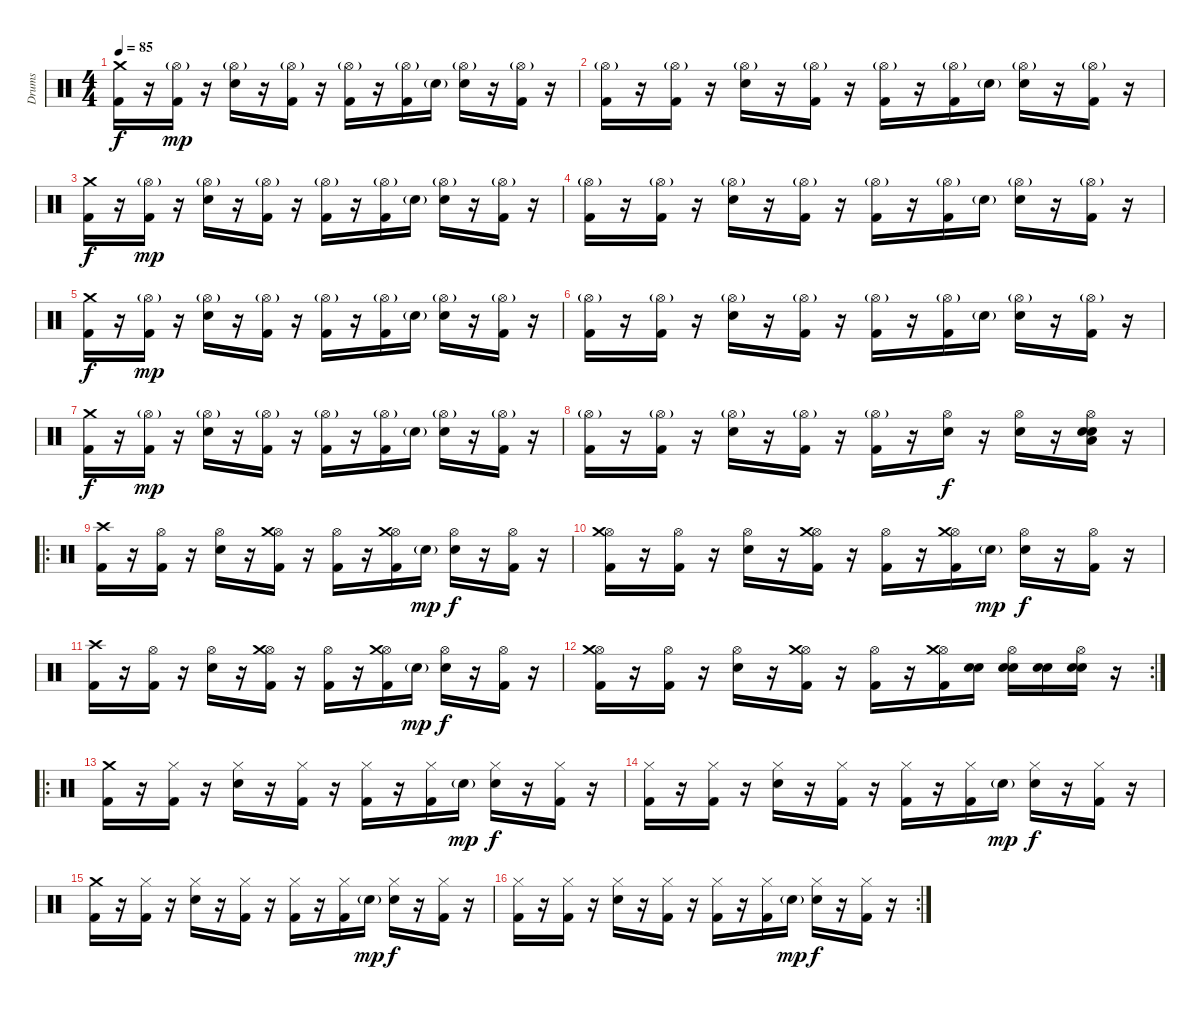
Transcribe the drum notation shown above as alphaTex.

\track ("Drums" "Drums") {instrument percussion}
\staff {score}
\articulation defaults
\ts (4 4)
\tempo 85
\clef neutral
\ks c
("Crash medium (hit)" "Kick (hit) 2").16{dy f} r.16 ("Hi-Hat (open)"{g} "Kick (hit) 2").16{dy mp} r.16 ("Hi-Hat (open)"{g} "Snare (hit) 2").16 r.16 ("Hi-Hat (open)"{g} "Kick (hit) 2").16 r.16 ("Hi-Hat (open)"{g} "Kick (hit) 2").16 r.16 ("Hi-Hat (open)"{g} "Kick (hit) 2").16 "Snare (hit) 2"{g}.16 ("Hi-Hat (open)"{g} "Snare (hit) 2").16 r.16 ("Hi-Hat (open)"{g} "Kick (hit) 2").16 r.16 |
("Hi-Hat (open)"{g} "Kick (hit) 2").16 r.16 ("Hi-Hat (open)"{g} "Kick (hit) 2").16 r.16 ("Hi-Hat (open)"{g} "Snare (hit) 2").16 r.16 ("Hi-Hat (open)"{g} "Kick (hit) 2").16 r.16 ("Hi-Hat (open)"{g} "Kick (hit) 2").16 r.16 ("Hi-Hat (open)"{g} "Kick (hit) 2").16 "Snare (hit) 2"{g}.16 ("Hi-Hat (open)"{g} "Snare (hit) 2").16 r.16 ("Hi-Hat (open)"{g} "Kick (hit) 2").16 r.16 |
("Crash medium (hit)" "Kick (hit) 2").16{dy f} r.16 ("Hi-Hat (open)"{g} "Kick (hit) 2").16{dy mp} r.16 ("Hi-Hat (open)"{g} "Snare (hit) 2").16 r.16 ("Hi-Hat (open)"{g} "Kick (hit) 2").16 r.16 ("Hi-Hat (open)"{g} "Kick (hit) 2").16 r.16 ("Hi-Hat (open)"{g} "Kick (hit) 2").16 "Snare (hit) 2"{g}.16 ("Hi-Hat (open)"{g} "Snare (hit) 2").16 r.16 ("Hi-Hat (open)"{g} "Kick (hit) 2").16 r.16 |
("Hi-Hat (open)"{g} "Kick (hit) 2").16 r.16 ("Hi-Hat (open)"{g} "Kick (hit) 2").16 r.16 ("Hi-Hat (open)"{g} "Snare (hit) 2").16 r.16 ("Hi-Hat (open)"{g} "Kick (hit) 2").16 r.16 ("Hi-Hat (open)"{g} "Kick (hit) 2").16 r.16 ("Hi-Hat (open)"{g} "Kick (hit) 2").16 "Snare (hit) 2"{g}.16 ("Hi-Hat (open)"{g} "Snare (hit) 2").16 r.16 ("Hi-Hat (open)"{g} "Kick (hit) 2").16 r.16 |
("Crash medium (hit)" "Kick (hit) 2").16{dy f} r.16 ("Hi-Hat (open)"{g} "Kick (hit) 2").16{dy mp} r.16 ("Hi-Hat (open)"{g} "Snare (hit) 2").16 r.16 ("Hi-Hat (open)"{g} "Kick (hit) 2").16 r.16 ("Hi-Hat (open)"{g} "Kick (hit) 2").16 r.16 ("Hi-Hat (open)"{g} "Kick (hit) 2").16 "Snare (hit) 2"{g}.16 ("Hi-Hat (open)"{g} "Snare (hit) 2").16 r.16 ("Hi-Hat (open)"{g} "Kick (hit) 2").16 r.16 |
("Hi-Hat (open)"{g} "Kick (hit) 2").16 r.16 ("Hi-Hat (open)"{g} "Kick (hit) 2").16 r.16 ("Hi-Hat (open)"{g} "Snare (hit) 2").16 r.16 ("Hi-Hat (open)"{g} "Kick (hit) 2").16 r.16 ("Hi-Hat (open)"{g} "Kick (hit) 2").16 r.16 ("Hi-Hat (open)"{g} "Kick (hit) 2").16 "Snare (hit) 2"{g}.16 ("Hi-Hat (open)"{g} "Snare (hit) 2").16 r.16 ("Hi-Hat (open)"{g} "Kick (hit) 2").16 r.16 |
("Crash medium (hit)" "Kick (hit) 2").16{dy f} r.16 ("Hi-Hat (open)"{g} "Kick (hit) 2").16{dy mp} r.16 ("Hi-Hat (open)"{g} "Snare (hit) 2").16 r.16 ("Hi-Hat (open)"{g} "Kick (hit) 2").16 r.16 ("Hi-Hat (open)"{g} "Kick (hit) 2").16 r.16 ("Hi-Hat (open)"{g} "Kick (hit) 2").16 "Snare (hit) 2"{g}.16 ("Hi-Hat (open)"{g} "Snare (hit) 2").16 r.16 ("Hi-Hat (open)"{g} "Kick (hit) 2").16 r.16 |
("Hi-Hat (open)"{g} "Kick (hit) 2").16 r.16 ("Hi-Hat (open)"{g} "Kick (hit) 2").16 r.16 ("Hi-Hat (open)"{g} "Snare (hit) 2").16 r.16 ("Hi-Hat (open)"{g} "Kick (hit) 2").16 r.16 ("Hi-Hat (open)"{g} "Kick (hit) 2").16 r.16 ("Hi-Hat (open)" "Snare (hit) 2").16{dy f} r.16 ("Hi-Hat (open)" "Snare (hit) 2").16 r.16 ("Hi-Hat (open)" "Electric Snare (hit)" "Snare (hit) 2" "Low Floor Tom (hit)").16 r.16 |
\ro
("Crash high (hit)" "Kick (hit) 2").16 r.16 ("Hi-Hat (open)" "Kick (hit) 2").16 r.16 ("Hi-Hat (open)" "Snare (hit) 2").16 r.16 ("Hi-Hat (open)" "Crash medium (hit)" "Kick (hit) 2").16 r.16 ("Hi-Hat (open)" "Kick (hit) 2").16 r.16 ("Hi-Hat (open)" "Crash medium (hit)" "Kick (hit) 2").16 "Snare (hit) 2"{g}.16{dy mp} ("Hi-Hat (open)" "Snare (hit) 2").16{dy f} r.16 ("Hi-Hat (open)" "Kick (hit) 2").16 r.16 |
("Hi-Hat (open)" "Crash medium (hit)" "Kick (hit) 2").16 r.16 ("Hi-Hat (open)" "Kick (hit) 2").16 r.16 ("Hi-Hat (open)" "Snare (hit) 2").16 r.16 ("Hi-Hat (open)" "Crash medium (hit)" "Kick (hit) 2").16 r.16 ("Hi-Hat (open)" "Kick (hit) 2").16 r.16 ("Hi-Hat (open)" "Crash medium (hit)" "Kick (hit) 2").16 "Snare (hit) 2"{g}.16{dy mp} ("Hi-Hat (open)" "Snare (hit) 2").16{dy f} r.16 ("Hi-Hat (open)" "Kick (hit) 2").16 r.16 |
("Crash high (hit)" "Kick (hit) 2").16 r.16 ("Hi-Hat (open)" "Kick (hit) 2").16 r.16 ("Hi-Hat (open)" "Snare (hit) 2").16 r.16 ("Hi-Hat (open)" "Crash medium (hit)" "Kick (hit) 2").16 r.16 ("Hi-Hat (open)" "Kick (hit) 2").16 r.16 ("Hi-Hat (open)" "Crash medium (hit)" "Kick (hit) 2").16 "Snare (hit) 2"{g}.16{dy mp} ("Hi-Hat (open)" "Snare (hit) 2").16{dy f} r.16 ("Hi-Hat (open)" "Kick (hit) 2").16 r.16 |
\rc 2
("Hi-Hat (open)" "Crash medium (hit)" "Kick (hit) 2").16 r.16 ("Hi-Hat (open)" "Kick (hit) 2").16 r.16 ("Hi-Hat (open)" "Snare (hit) 2").16 r.16 ("Hi-Hat (open)" "Crash medium (hit)" "Kick (hit) 2").16 r.16 ("Hi-Hat (open)" "Kick (hit) 2").16 r.16 ("Hi-Hat (open)" "Crash medium (hit)" "Kick (hit) 2").16 ("Electric Snare (hit)" "Snare (hit) 2").16 ("Hi-Hat (open)" "Electric Snare (hit)" "Snare (hit) 2").16 ("Electric Snare (hit)" "Snare (hit) 2").16 ("Hi-Hat (open)" "Electric Snare (hit)" "Snare (hit) 2").16 r.16 |
\ro
("Crash medium (hit)" "Kick (hit) 2").16 r.16 ("Hi-Hat (closed)" "Kick (hit) 2").16 r.16 ("Hi-Hat (closed)" "Snare (hit) 2").16 r.16 ("Hi-Hat (closed)" "Kick (hit) 2").16 r.16 ("Hi-Hat (closed)" "Kick (hit) 2").16 r.16 ("Hi-Hat (closed)" "Kick (hit) 2").16 "Snare (hit) 2"{g}.16{dy mp} ("Hi-Hat (closed)" "Snare (hit) 2").16{dy f} r.16 ("Hi-Hat (closed)" "Kick (hit) 2").16 r.16 |
("Hi-Hat (closed)" "Kick (hit) 2").16 r.16 ("Hi-Hat (closed)" "Kick (hit) 2").16 r.16 ("Hi-Hat (closed)" "Snare (hit) 2").16 r.16 ("Hi-Hat (closed)" "Kick (hit) 2").16 r.16 ("Hi-Hat (closed)" "Kick (hit) 2").16 r.16 ("Hi-Hat (closed)" "Kick (hit) 2").16 "Snare (hit) 2"{g}.16{dy mp} ("Hi-Hat (closed)" "Snare (hit) 2").16{dy f} r.16 ("Hi-Hat (closed)" "Kick (hit) 2").16 r.16 |
("Crash medium (hit)" "Kick (hit) 2").16 r.16 ("Hi-Hat (closed)" "Kick (hit) 2").16 r.16 ("Hi-Hat (closed)" "Snare (hit) 2").16 r.16 ("Hi-Hat (closed)" "Kick (hit) 2").16 r.16 ("Hi-Hat (closed)" "Kick (hit) 2").16 r.16 ("Hi-Hat (closed)" "Kick (hit) 2").16 "Snare (hit) 2"{g}.16{dy mp} ("Hi-Hat (closed)" "Snare (hit) 2").16{dy f} r.16 ("Hi-Hat (closed)" "Kick (hit) 2").16 r.16 |
\rc 2
("Hi-Hat (closed)" "Kick (hit) 2").16 r.16 ("Hi-Hat (closed)" "Kick (hit) 2").16 r.16 ("Hi-Hat (closed)" "Snare (hit) 2").16 r.16 ("Hi-Hat (closed)" "Kick (hit) 2").16 r.16 ("Hi-Hat (closed)" "Kick (hit) 2").16 r.16 ("Hi-Hat (closed)" "Kick (hit) 2").16 "Snare (hit) 2"{g}.16{dy mp} ("Hi-Hat (closed)" "Snare (hit) 2").16{dy f} r.16 ("Hi-Hat (closed)" "Kick (hit) 2").16 r.16
